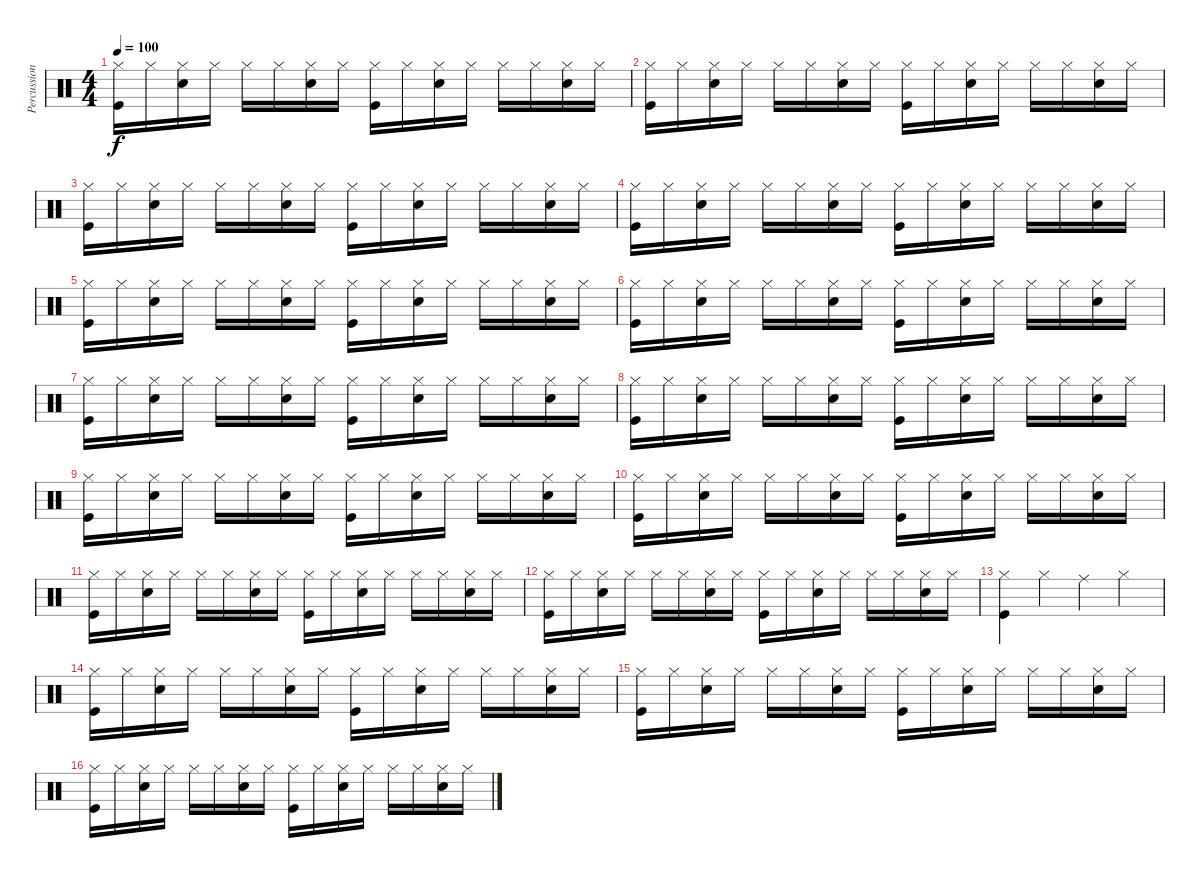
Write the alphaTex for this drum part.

\track ("Percussions" "Percussion") {instrument percussion}
\staff {score}
\articulation defaults
\ts (4 4)
\tempo 100
\clef neutral
\ks c
("Hi-Hat (closed)" "Kick (hit)").16{dy f} "Hi-Hat (closed)".16 ("Hi-Hat (closed)" "Snare (hit) 2").16 "Hi-Hat (closed)".16 "Hi-Hat (closed)".16 "Hi-Hat (closed)".16 ("Hi-Hat (closed)" "Snare (hit) 2").16 "Hi-Hat (closed)".16 ("Hi-Hat (closed)" "Kick (hit)").16 "Hi-Hat (closed)".16 ("Hi-Hat (closed)" "Snare (hit) 2").16 "Hi-Hat (closed)".16 "Hi-Hat (closed)".16 "Hi-Hat (closed)".16 ("Hi-Hat (closed)" "Snare (hit) 2").16 "Hi-Hat (closed)".16 |
("Hi-Hat (closed)" "Kick (hit)").16 "Hi-Hat (closed)".16 ("Hi-Hat (closed)" "Snare (hit) 2").16 "Hi-Hat (closed)".16 "Hi-Hat (closed)".16 "Hi-Hat (closed)".16 ("Hi-Hat (closed)" "Snare (hit) 2").16 "Hi-Hat (closed)".16 ("Hi-Hat (closed)" "Kick (hit)").16 "Hi-Hat (closed)".16 ("Hi-Hat (closed)" "Snare (hit) 2").16 "Hi-Hat (closed)".16 "Hi-Hat (closed)".16 "Hi-Hat (closed)".16 ("Hi-Hat (closed)" "Snare (hit) 2").16 "Hi-Hat (closed)".16 |
("Hi-Hat (closed)" "Kick (hit)").16 "Hi-Hat (closed)".16 ("Hi-Hat (closed)" "Snare (hit) 2").16 "Hi-Hat (closed)".16 "Hi-Hat (closed)".16 "Hi-Hat (closed)".16 ("Hi-Hat (closed)" "Snare (hit) 2").16 "Hi-Hat (closed)".16 ("Hi-Hat (closed)" "Kick (hit)").16 "Hi-Hat (closed)".16 ("Hi-Hat (closed)" "Snare (hit) 2").16 "Hi-Hat (closed)".16 "Hi-Hat (closed)".16 "Hi-Hat (closed)".16 ("Hi-Hat (closed)" "Snare (hit) 2").16 "Hi-Hat (closed)".16 |
("Hi-Hat (closed)" "Kick (hit)").16 "Hi-Hat (closed)".16 ("Hi-Hat (closed)" "Snare (hit) 2").16 "Hi-Hat (closed)".16 "Hi-Hat (closed)".16 "Hi-Hat (closed)".16 ("Hi-Hat (closed)" "Snare (hit) 2").16 "Hi-Hat (closed)".16 ("Hi-Hat (closed)" "Kick (hit)").16 "Hi-Hat (closed)".16 ("Hi-Hat (closed)" "Snare (hit) 2").16 "Hi-Hat (closed)".16 "Hi-Hat (closed)".16 "Hi-Hat (closed)".16 ("Hi-Hat (closed)" "Snare (hit) 2").16 "Hi-Hat (closed)".16 |
("Hi-Hat (closed)" "Kick (hit)").16 "Hi-Hat (closed)".16 ("Hi-Hat (closed)" "Snare (hit) 2").16 "Hi-Hat (closed)".16 "Hi-Hat (closed)".16 "Hi-Hat (closed)".16 ("Hi-Hat (closed)" "Snare (hit) 2").16 "Hi-Hat (closed)".16 ("Hi-Hat (closed)" "Kick (hit)").16 "Hi-Hat (closed)".16 ("Hi-Hat (closed)" "Snare (hit) 2").16 "Hi-Hat (closed)".16 "Hi-Hat (closed)".16 "Hi-Hat (closed)".16 ("Hi-Hat (closed)" "Snare (hit) 2").16 "Hi-Hat (closed)".16 |
("Hi-Hat (closed)" "Kick (hit)").16 "Hi-Hat (closed)".16 ("Hi-Hat (closed)" "Snare (hit) 2").16 "Hi-Hat (closed)".16 "Hi-Hat (closed)".16 "Hi-Hat (closed)".16 ("Hi-Hat (closed)" "Snare (hit) 2").16 "Hi-Hat (closed)".16 ("Hi-Hat (closed)" "Kick (hit)").16 "Hi-Hat (closed)".16 ("Hi-Hat (closed)" "Snare (hit) 2").16 "Hi-Hat (closed)".16 "Hi-Hat (closed)".16 "Hi-Hat (closed)".16 ("Hi-Hat (closed)" "Snare (hit) 2").16 "Hi-Hat (closed)".16 |
("Hi-Hat (closed)" "Kick (hit)").16 "Hi-Hat (closed)".16 ("Hi-Hat (closed)" "Snare (hit) 2").16 "Hi-Hat (closed)".16 "Hi-Hat (closed)".16 "Hi-Hat (closed)".16 ("Hi-Hat (closed)" "Snare (hit) 2").16 "Hi-Hat (closed)".16 ("Hi-Hat (closed)" "Kick (hit)").16 "Hi-Hat (closed)".16 ("Hi-Hat (closed)" "Snare (hit) 2").16 "Hi-Hat (closed)".16 "Hi-Hat (closed)".16 "Hi-Hat (closed)".16 ("Hi-Hat (closed)" "Snare (hit) 2").16 "Hi-Hat (closed)".16 |
("Hi-Hat (closed)" "Kick (hit)").16 "Hi-Hat (closed)".16 ("Hi-Hat (closed)" "Snare (hit) 2").16 "Hi-Hat (closed)".16 "Hi-Hat (closed)".16 "Hi-Hat (closed)".16 ("Hi-Hat (closed)" "Snare (hit) 2").16 "Hi-Hat (closed)".16 ("Hi-Hat (closed)" "Kick (hit)").16 "Hi-Hat (closed)".16 ("Hi-Hat (closed)" "Snare (hit) 2").16 "Hi-Hat (closed)".16 "Hi-Hat (closed)".16 "Hi-Hat (closed)".16 ("Hi-Hat (closed)" "Snare (hit) 2").16 "Hi-Hat (closed)".16 |
("Hi-Hat (closed)" "Kick (hit)").16 "Hi-Hat (closed)".16 ("Hi-Hat (closed)" "Snare (hit) 2").16 "Hi-Hat (closed)".16 "Hi-Hat (closed)".16 "Hi-Hat (closed)".16 ("Hi-Hat (closed)" "Snare (hit) 2").16 "Hi-Hat (closed)".16 ("Hi-Hat (closed)" "Kick (hit)").16 "Hi-Hat (closed)".16 ("Hi-Hat (closed)" "Snare (hit) 2").16 "Hi-Hat (closed)".16 "Hi-Hat (closed)".16 "Hi-Hat (closed)".16 ("Hi-Hat (closed)" "Snare (hit) 2").16 "Hi-Hat (closed)".16 |
("Hi-Hat (closed)" "Kick (hit)").16 "Hi-Hat (closed)".16 ("Hi-Hat (closed)" "Snare (hit) 2").16 "Hi-Hat (closed)".16 "Hi-Hat (closed)".16 "Hi-Hat (closed)".16 ("Hi-Hat (closed)" "Snare (hit) 2").16 "Hi-Hat (closed)".16 ("Hi-Hat (closed)" "Kick (hit)").16 "Hi-Hat (closed)".16 ("Hi-Hat (closed)" "Snare (hit) 2").16 "Hi-Hat (closed)".16 "Hi-Hat (closed)".16 "Hi-Hat (closed)".16 ("Hi-Hat (closed)" "Snare (hit) 2").16 "Hi-Hat (closed)".16 |
("Hi-Hat (closed)" "Kick (hit)").16 "Hi-Hat (closed)".16 ("Hi-Hat (closed)" "Snare (hit) 2").16 "Hi-Hat (closed)".16 "Hi-Hat (closed)".16 "Hi-Hat (closed)".16 ("Hi-Hat (closed)" "Snare (hit) 2").16 "Hi-Hat (closed)".16 ("Hi-Hat (closed)" "Kick (hit)").16 "Hi-Hat (closed)".16 ("Hi-Hat (closed)" "Snare (hit) 2").16 "Hi-Hat (closed)".16 "Hi-Hat (closed)".16 "Hi-Hat (closed)".16 ("Hi-Hat (closed)" "Snare (hit) 2").16 "Hi-Hat (closed)".16 |
("Hi-Hat (closed)" "Kick (hit)").16 "Hi-Hat (closed)".16 ("Hi-Hat (closed)" "Snare (hit) 2").16 "Hi-Hat (closed)".16 "Hi-Hat (closed)".16 "Hi-Hat (closed)".16 ("Hi-Hat (closed)" "Snare (hit) 2").16 "Hi-Hat (closed)".16 ("Hi-Hat (closed)" "Kick (hit)").16 "Hi-Hat (closed)".16 ("Hi-Hat (closed)" "Snare (hit) 2").16 "Hi-Hat (closed)".16 "Hi-Hat (closed)".16 "Hi-Hat (closed)".16 ("Hi-Hat (closed)" "Snare (hit) 2").16 "Hi-Hat (closed)".16 |
("Hi-Hat (closed)" "Kick (hit)").4 "Hi-Hat (closed)".4 "Ride (middle)".4 "Hi-Hat (closed)".4 |
("Hi-Hat (closed)" "Kick (hit)").16 "Hi-Hat (closed)".16 ("Hi-Hat (closed)" "Snare (hit) 2").16 "Hi-Hat (closed)".16 "Hi-Hat (closed)".16 "Hi-Hat (closed)".16 ("Hi-Hat (closed)" "Snare (hit) 2").16 "Hi-Hat (closed)".16 ("Hi-Hat (closed)" "Kick (hit)").16 "Hi-Hat (closed)".16 ("Hi-Hat (closed)" "Snare (hit) 2").16 "Hi-Hat (closed)".16 "Hi-Hat (closed)".16 "Hi-Hat (closed)".16 ("Hi-Hat (closed)" "Snare (hit) 2").16 "Hi-Hat (closed)".16 |
("Hi-Hat (closed)" "Kick (hit)").16 "Hi-Hat (closed)".16 ("Hi-Hat (closed)" "Snare (hit) 2").16 "Hi-Hat (closed)".16 "Hi-Hat (closed)".16 "Hi-Hat (closed)".16 ("Hi-Hat (closed)" "Snare (hit) 2").16 "Hi-Hat (closed)".16 ("Hi-Hat (closed)" "Kick (hit)").16 "Hi-Hat (closed)".16 ("Hi-Hat (closed)" "Snare (hit) 2").16 "Hi-Hat (closed)".16 "Hi-Hat (closed)".16 "Hi-Hat (closed)".16 ("Hi-Hat (closed)" "Snare (hit) 2").16 "Hi-Hat (closed)".16 |
("Hi-Hat (closed)" "Kick (hit)").16 "Hi-Hat (closed)".16 ("Hi-Hat (closed)" "Snare (hit) 2").16 "Hi-Hat (closed)".16 "Hi-Hat (closed)".16 "Hi-Hat (closed)".16 ("Hi-Hat (closed)" "Snare (hit) 2").16 "Hi-Hat (closed)".16 ("Hi-Hat (closed)" "Kick (hit)").16 "Hi-Hat (closed)".16 ("Hi-Hat (closed)" "Snare (hit) 2").16 "Hi-Hat (closed)".16 "Hi-Hat (closed)".16 "Hi-Hat (closed)".16 ("Hi-Hat (closed)" "Snare (hit) 2").16 "Hi-Hat (closed)".16
